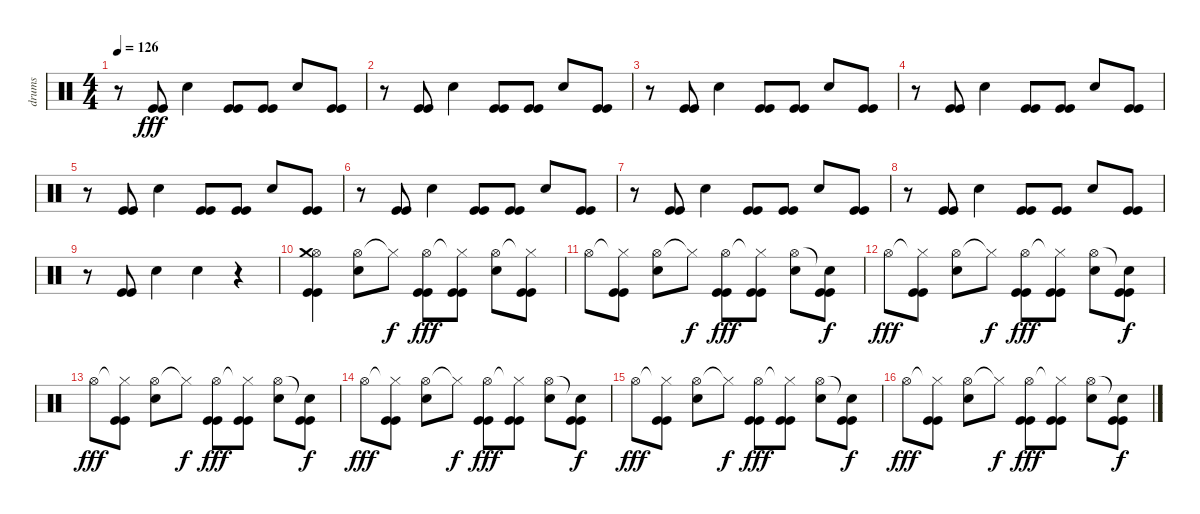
\track ("drums" "drums") {instrument percussion}
\staff {score}
\articulation defaults
\ts (4 4)
\tempo 126
\clef neutral
\ks c
r.8{dy fff} ("Kick (hit)" "Kick (hit)").8 "Electric Snare (hit)".4 ("Kick (hit)" "Kick (hit)").8 ("Kick (hit)" "Kick (hit)").8 "Electric Snare (hit)".8 ("Kick (hit)" "Kick (hit)").8 |
r.8 ("Kick (hit)" "Kick (hit)").8 "Electric Snare (hit)".4 ("Kick (hit)" "Kick (hit)").8 ("Kick (hit)" "Kick (hit)").8 "Electric Snare (hit)".8 ("Kick (hit)" "Kick (hit)").8 |
r.8 ("Kick (hit)" "Kick (hit)").8 "Electric Snare (hit)".4 ("Kick (hit)" "Kick (hit)").8 ("Kick (hit)" "Kick (hit)").8 "Electric Snare (hit)".8 ("Kick (hit)" "Kick (hit)").8 |
r.8 ("Kick (hit)" "Kick (hit)").8 "Electric Snare (hit)".4 ("Kick (hit)" "Kick (hit)").8 ("Kick (hit)" "Kick (hit)").8 "Electric Snare (hit)".8 ("Kick (hit)" "Kick (hit)").8 |
r.8 ("Kick (hit)" "Kick (hit)").8 "Electric Snare (hit)".4 ("Kick (hit)" "Kick (hit)").8 ("Kick (hit)" "Kick (hit)").8 "Electric Snare (hit)".8 ("Kick (hit)" "Kick (hit)").8 |
r.8 ("Kick (hit)" "Kick (hit)").8 "Electric Snare (hit)".4 ("Kick (hit)" "Kick (hit)").8 ("Kick (hit)" "Kick (hit)").8 "Electric Snare (hit)".8 ("Kick (hit)" "Kick (hit)").8 |
r.8 ("Kick (hit)" "Kick (hit)").8 "Electric Snare (hit)".4 ("Kick (hit)" "Kick (hit)").8 ("Kick (hit)" "Kick (hit)").8 "Electric Snare (hit)".8 ("Kick (hit)" "Kick (hit)").8 |
r.8 ("Kick (hit)" "Kick (hit)").8 "Electric Snare (hit)".4 ("Kick (hit)" "Kick (hit)").8 ("Kick (hit)" "Kick (hit)").8 "Electric Snare (hit)".8 ("Kick (hit)" "Kick (hit)").8 |
r.8 ("Kick (hit)" "Kick (hit)").8 "Electric Snare (hit)".4 "Electric Snare (hit)".4 r.4 |
("Hi-Hat (open)" "Crash medium (hit)" "Kick (hit)" "Kick (hit)").4 ("Hi-Hat (open)" "Electric Snare (hit)").8 "Hi-Hat (closed)"{t}.8{dy f} ("Hi-Hat (open)" "Kick (hit)" "Kick (hit)").8{dy fff} ("Hi-Hat (closed)"{t} "Kick (hit)" "Kick (hit)").8 ("Hi-Hat (open)" "Electric Snare (hit)").8 ("Hi-Hat (closed)"{t} "Kick (hit)" "Kick (hit)").8 |
"Hi-Hat (open)".8 ("Hi-Hat (closed)"{t} "Kick (hit)" "Kick (hit)").8 ("Hi-Hat (open)" "Electric Snare (hit)").8 "Hi-Hat (closed)"{t}.8{dy f} ("Hi-Hat (open)" "Kick (hit)" "Kick (hit)").8{dy fff} ("Hi-Hat (closed)"{t} "Kick (hit)" "Kick (hit)").8 ("Hi-Hat (open)" "Electric Snare (hit)").8 ("Snare (hit)"{t} "Kick (hit)" "Kick (hit)").8{dy f} |
"Hi-Hat (open)".8{dy fff} ("Hi-Hat (closed)"{t} "Kick (hit)" "Kick (hit)").8 ("Hi-Hat (open)" "Electric Snare (hit)").8 "Hi-Hat (closed)"{t}.8{dy f} ("Hi-Hat (open)" "Kick (hit)" "Kick (hit)").8{dy fff} ("Hi-Hat (closed)"{t} "Kick (hit)" "Kick (hit)").8 ("Hi-Hat (open)" "Electric Snare (hit)").8 ("Snare (hit)"{t} "Kick (hit)" "Kick (hit)").8{dy f} |
"Hi-Hat (open)".8{dy fff} ("Hi-Hat (closed)"{t} "Kick (hit)" "Kick (hit)").8 ("Hi-Hat (open)" "Electric Snare (hit)").8 "Hi-Hat (closed)"{t}.8{dy f} ("Hi-Hat (open)" "Kick (hit)" "Kick (hit)").8{dy fff} ("Hi-Hat (closed)"{t} "Kick (hit)" "Kick (hit)").8 ("Hi-Hat (open)" "Electric Snare (hit)").8 ("Snare (hit)"{t} "Kick (hit)" "Kick (hit)").8{dy f} |
"Hi-Hat (open)".8{dy fff} ("Hi-Hat (closed)"{t} "Kick (hit)" "Kick (hit)").8 ("Hi-Hat (open)" "Electric Snare (hit)").8 "Hi-Hat (closed)"{t}.8{dy f} ("Hi-Hat (open)" "Kick (hit)" "Kick (hit)").8{dy fff} ("Hi-Hat (closed)"{t} "Kick (hit)" "Kick (hit)").8 ("Hi-Hat (open)" "Electric Snare (hit)").8 ("Snare (hit)"{t} "Kick (hit)" "Kick (hit)").8{dy f} |
"Hi-Hat (open)".8{dy fff} ("Hi-Hat (closed)"{t} "Kick (hit)" "Kick (hit)").8 ("Hi-Hat (open)" "Electric Snare (hit)").8 "Hi-Hat (closed)"{t}.8{dy f} ("Hi-Hat (open)" "Kick (hit)" "Kick (hit)").8{dy fff} ("Hi-Hat (closed)"{t} "Kick (hit)" "Kick (hit)").8 ("Hi-Hat (open)" "Electric Snare (hit)").8 ("Snare (hit)"{t} "Kick (hit)" "Kick (hit)").8{dy f} |
"Hi-Hat (open)".8{dy fff} ("Hi-Hat (closed)"{t} "Kick (hit)" "Kick (hit)").8 ("Hi-Hat (open)" "Electric Snare (hit)").8 "Hi-Hat (closed)"{t}.8{dy f} ("Hi-Hat (open)" "Kick (hit)" "Kick (hit)").8{dy fff} ("Hi-Hat (closed)"{t} "Kick (hit)" "Kick (hit)").8 ("Hi-Hat (open)" "Electric Snare (hit)").8 ("Snare (hit)"{t} "Kick (hit)" "Kick (hit)").8{dy f}
